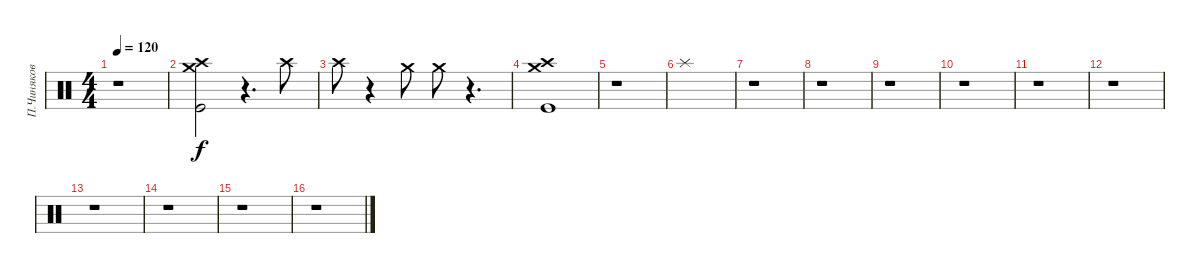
\track ("П.Чиняков" "П.Чиняков") {instrument percussion}
\staff {score}
\articulation defaults
\ts (4 4)
\tempo 120
\clef neutral
\ks c
r.1{dy f} |
("Crash medium (hit)" "Crash high (hit)" "Kick (hit)").2 r.4{d} "Crash high (hit)".8 |
"Crash high (hit)".8 r.4 "Crash medium (hit)".8 "Crash medium (hit)".8 r.4{d} |
("Crash medium (hit)" "Crash high (hit)" "Kick (hit)").1 |
r.1 |
"Splash (hit)".1 |
r.1 |
r.1 |
r.1 |
r.1 |
r.1 |
r.1 |
r.1 |
r.1 |
r.1 |
r.1
